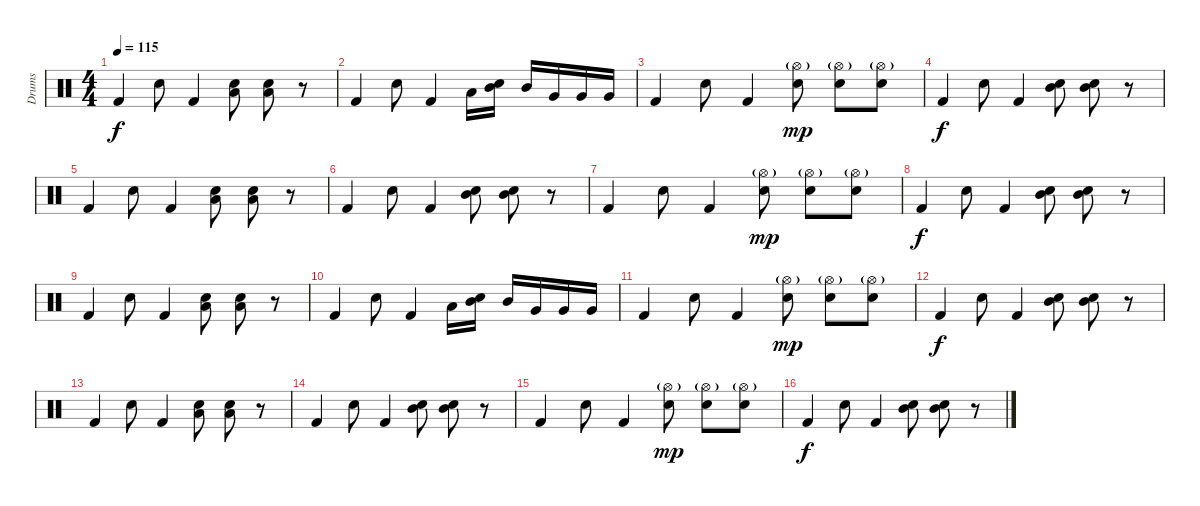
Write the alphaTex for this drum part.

\track ("Drums" "Drums") {instrument percussion}
\staff {score}
\articulation defaults
\ts (4 4)
\tempo 115
\clef neutral
\ks c "Kick (hit) 2".4{dy f} "Snare (hit) 2".8 "Kick (hit) 2".4
("Low Tom (hit)" "Snare (hit) 2").8 ("Low Tom (hit)" "Snare (hit) 2").8 r.8 |
"Kick (hit) 2".4 "Snare (hit) 2".8 "Kick (hit) 2".4 "Low Tom (hit)".16 ("Mid Tom (hit)" "Snare (hit) 2").16 "Mid Tom (hit)".16 "Very Low Tom (hit)".16 "Very Low Tom (hit)".16 "Very Low Tom (hit)".16 |
"Kick (hit) 2".4 "Snare (hit) 2".8 "Kick (hit) 2".4 ("Hi-Hat (open)"{g} "Snare (hit) 2").8{dy mp} ("Hi-Hat (open)"{g} "Snare (hit) 2").8 ("Hi-Hat (open)"{g} "Snare (hit) 2").8 |
"Kick (hit) 2".4{dy f} "Snare (hit) 2".8 "Kick (hit) 2".4 ("Mid Tom (hit)" "Snare (hit) 2").8 ("Mid Tom (hit)" "Snare (hit) 2").8 r.8 |
"Kick (hit) 2".4 "Snare (hit) 2".8 "Kick (hit) 2".4 ("Low Tom (hit)" "Snare (hit) 2").8 ("Low Tom (hit)" "Snare (hit) 2").8 r.8 |
"Kick (hit) 2".4 "Snare (hit) 2".8 "Kick (hit) 2".4 ("Mid Tom (hit)" "Snare (hit) 2").8 ("Mid Tom (hit)" "Snare (hit) 2").8 r.8 |
"Kick (hit) 2".4 "Snare (hit) 2".8 "Kick (hit) 2".4 ("Hi-Hat (open)"{g} "Snare (hit) 2").8{dy mp} ("Hi-Hat (open)"{g} "Snare (hit) 2").8 ("Hi-Hat (open)"{g} "Snare (hit) 2").8 |
"Kick (hit) 2".4{dy f} "Snare (hit) 2".8 "Kick (hit) 2".4 ("Mid Tom (hit)" "Snare (hit) 2").8 ("Mid Tom (hit)" "Snare (hit) 2").8 r.8 |
"Kick (hit) 2".4 "Snare (hit) 2".8 "Kick (hit) 2".4 ("Low Tom (hit)" "Snare (hit) 2").8 ("Low Tom (hit)" "Snare (hit) 2").8 r.8 |
"Kick (hit) 2".4 "Snare (hit) 2".8 "Kick (hit) 2".4 "Low Tom (hit)".16 ("Mid Tom (hit)" "Snare (hit) 2").16 "Mid Tom (hit)".16 "Very Low Tom (hit)".16 "Very Low Tom (hit)".16 "Very Low Tom (hit)".16 |
"Kick (hit) 2".4 "Snare (hit) 2".8 "Kick (hit) 2".4 ("Hi-Hat (open)"{g} "Snare (hit) 2").8{dy mp} ("Hi-Hat (open)"{g} "Snare (hit) 2").8 ("Hi-Hat (open)"{g} "Snare (hit) 2").8 |
"Kick (hit) 2".4{dy f} "Snare (hit) 2".8 "Kick (hit) 2".4 ("Mid Tom (hit)" "Snare (hit) 2").8 ("Mid Tom (hit)" "Snare (hit) 2").8 r.8 |
"Kick (hit) 2".4 "Snare (hit) 2".8 "Kick (hit) 2".4 ("Low Tom (hit)" "Snare (hit) 2").8 ("Low Tom (hit)" "Snare (hit) 2").8 r.8 |
"Kick (hit) 2".4 "Snare (hit) 2".8 "Kick (hit) 2".4 ("Mid Tom (hit)" "Snare (hit) 2").8 ("Mid Tom (hit)" "Snare (hit) 2").8 r.8 |
"Kick (hit) 2".4 "Snare (hit) 2".8 "Kick (hit) 2".4 ("Hi-Hat (open)"{g} "Snare (hit) 2").8{dy mp} ("Hi-Hat (open)"{g} "Snare (hit) 2").8 ("Hi-Hat (open)"{g} "Snare (hit) 2").8 |
"Kick (hit) 2".4{dy f} "Snare (hit) 2".8 "Kick (hit) 2".4 ("Mid Tom (hit)" "Snare (hit) 2").8 ("Mid Tom (hit)" "Snare (hit) 2").8 r.8
